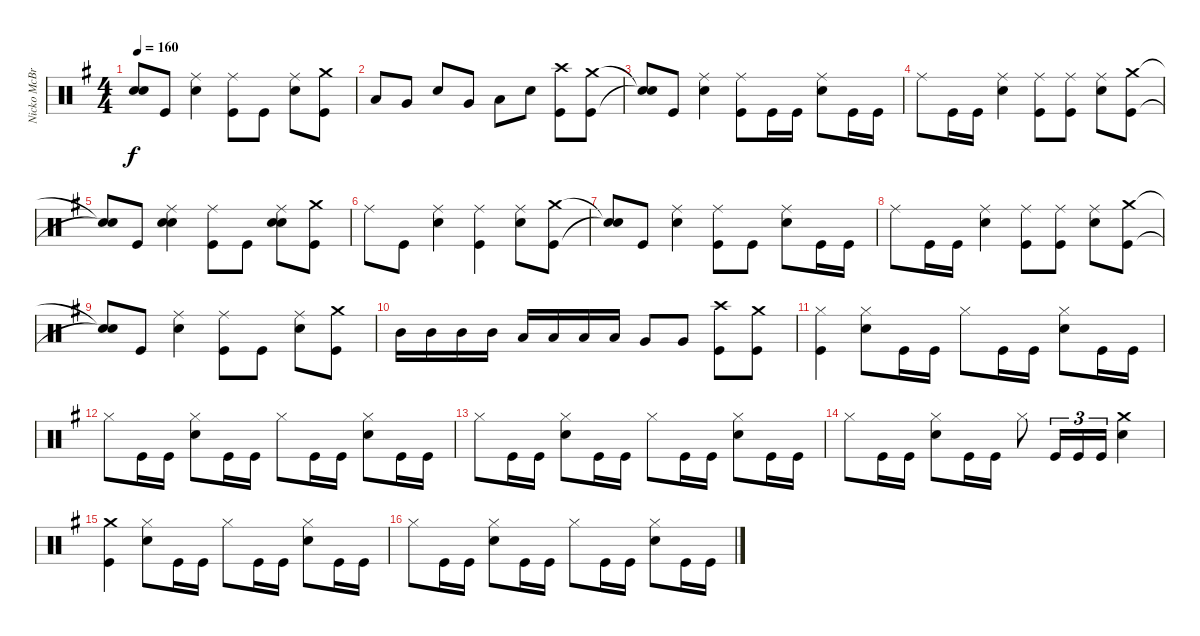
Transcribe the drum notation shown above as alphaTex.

\track ("Nicko McBrain" "Nicko McBr") {instrument percussion}
\staff {score}
\articulation defaults
\ts (4 4)
\tempo 160
\clef neutral
\ks g
("Snare (hit)"{t} "Snare (hit)"{t}).8{dy f} "Kick (hit)".8 ("Electric Snare (hit)" "Ride (middle)").4 ("Kick (hit)" "Ride (middle)").8 "Kick (hit)".8 ("Electric Snare (hit)" "Ride (middle)").8 ("Kick (hit)" "Crash medium (hit)").8 |
"Low Tom (hit)".8 "Very Low Tom (hit)".8 "Electric Snare (hit)".8 "Very Low Tom (hit)".8 "Low Floor Tom (hit)".8 "Electric Snare (hit)".8 ("Kick (hit)" "Crash high (hit)").8 ("Kick (hit)" "Crash medium (hit)").8 |
("Snare (hit)"{t} "Snare (hit)"{t}).8 "Kick (hit)".8 ("Electric Snare (hit)" "Ride (middle)").4 ("Kick (hit)" "Ride (middle)").8 "Kick (hit)".16 "Kick (hit)".16 ("Electric Snare (hit)" "Ride (middle)").8 "Kick (hit)".16 "Kick (hit)".16 |
"Ride (middle)".8 "Kick (hit)".16 "Kick (hit)".16 ("Electric Snare (hit)" "Ride (middle)").4 ("Kick (hit)" "Ride (middle)").8 ("Kick (hit)" "Ride (middle)").8 ("Electric Snare (hit)" "Ride (middle)").8 ("Kick (hit)" "Crash medium (hit)").8 |
("Snare (hit)"{t} "Snare (hit)"{t}).8 "Kick (hit)".8 ("Electric Snare (hit)" "Ride (middle)" "Snare (hit) 2").4 ("Kick (hit)" "Ride (middle)").8 "Kick (hit)".8 ("Electric Snare (hit)" "Ride (middle)" "Snare (hit) 2").8 ("Kick (hit)" "Crash medium (hit)").8 |
"Ride (middle)".8 "Kick (hit)".8 ("Electric Snare (hit)" "Ride (middle)").4 ("Kick (hit)" "Ride (middle)").4 ("Electric Snare (hit)" "Ride (middle)").8 ("Kick (hit)" "Crash medium (hit)").8 |
("Snare (hit)"{t} "Snare (hit)"{t}).8 "Kick (hit)".8 ("Electric Snare (hit)" "Ride (middle)").4 ("Kick (hit)" "Ride (middle)").8 "Kick (hit)".8 ("Electric Snare (hit)" "Ride (middle)").8 "Kick (hit)".16 "Kick (hit)".16 |
"Ride (middle)".8 "Kick (hit)".16 "Kick (hit)".16 ("Electric Snare (hit)" "Ride (middle)").4 ("Kick (hit)" "Ride (middle)").8 ("Kick (hit)" "Ride (middle)").8 ("Electric Snare (hit)" "Ride (middle)").8 ("Kick (hit)" "Crash medium (hit)").8 |
("Snare (hit)"{t} "Snare (hit)"{t}).8 "Kick (hit)".8 ("Electric Snare (hit)" "Ride (middle)").4 ("Kick (hit)" "Ride (middle)").8 "Kick (hit)".8 ("Electric Snare (hit)" "Ride (middle)").8 ("Kick (hit)" "Crash medium (hit)").8 |
"Mid Tom (hit)".16 "Mid Tom (hit)".16 "Mid Tom (hit)".16 "Mid Tom (hit)".16 "Low Tom (hit)".16 "Low Tom (hit)".16 "Low Tom (hit)".16 "Low Tom (hit)".16 "Very Low Tom (hit)".8 "Very Low Tom (hit)".8 ("Kick (hit)" "Crash high (hit)").8 ("Kick (hit)" "Crash medium (hit)").8 |
("Kick (hit)" "Hi-Hat (closed)").4 ("Electric Snare (hit)" "Hi-Hat (closed)").8 "Kick (hit)".16 "Kick (hit)".16 "Hi-Hat (closed)".8 "Kick (hit)".16 "Kick (hit)".16 ("Electric Snare (hit)" "Hi-Hat (closed)").8 "Kick (hit)".16 "Kick (hit)".16 |
"Hi-Hat (closed)".8 "Kick (hit)".16 "Kick (hit)".16 ("Electric Snare (hit)" "Hi-Hat (closed)").8 "Kick (hit)".16 "Kick (hit)".16 "Hi-Hat (closed)".8 "Kick (hit)".16 "Kick (hit)".16 ("Electric Snare (hit)" "Hi-Hat (closed)").8 "Kick (hit)".16 "Kick (hit)".16 |
"Hi-Hat (closed)".8 "Kick (hit)".16 "Kick (hit)".16 ("Electric Snare (hit)" "Hi-Hat (closed)").8 "Kick (hit)".16 "Kick (hit)".16 "Hi-Hat (closed)".8 "Kick (hit)".16 "Kick (hit)".16 ("Electric Snare (hit)" "Hi-Hat (closed)").8 "Kick (hit)".16 "Kick (hit)".16 |
"Hi-Hat (closed)".8 "Kick (hit)".16 "Kick (hit)".16 ("Electric Snare (hit)" "Hi-Hat (closed)").8 "Kick (hit)".16 "Kick (hit)".16 "Hi-Hat (closed)".8 "Kick (hit)".16{tu (3 2)} "Kick (hit)".16{tu (3 2)} "Kick (hit)".16{tu (3 2)} ("Electric Snare (hit)" "Crash medium (hit)").4 |
("Kick (hit)" "Crash medium (hit)").4 ("Electric Snare (hit)" "Hi-Hat (closed)").8 "Kick (hit)".16 "Kick (hit)".16 "Hi-Hat (closed)".8 "Kick (hit)".16 "Kick (hit)".16 ("Electric Snare (hit)" "Hi-Hat (closed)").8 "Kick (hit)".16 "Kick (hit)".16 |
"Hi-Hat (closed)".8 "Kick (hit)".16 "Kick (hit)".16 ("Electric Snare (hit)" "Hi-Hat (closed)").8 "Kick (hit)".16 "Kick (hit)".16 "Hi-Hat (closed)".8 "Kick (hit)".16 "Kick (hit)".16 ("Electric Snare (hit)" "Hi-Hat (closed)").8 "Kick (hit)".16 "Kick (hit)".16
